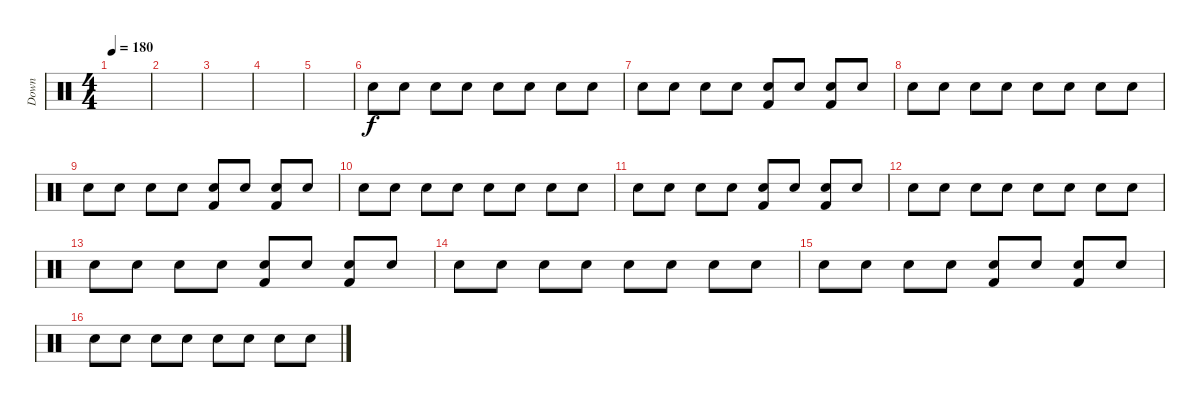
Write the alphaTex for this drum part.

\track ("Down" "Down") {instrument percussion}
\staff {score}
\articulation defaults
\ts (4 4)
\tempo 180
\clef neutral
\ks c
|
|
|
|
|
"Electric Snare (hit)".8 "Electric Snare (hit)".8 "Electric Snare (hit)".8 "Electric Snare (hit)".8 "Electric Snare (hit)".8 "Electric Snare (hit)".8 "Electric Snare (hit)".8 "Electric Snare (hit)".8 |
"Electric Snare (hit)".8 "Electric Snare (hit)".8 "Electric Snare (hit)".8 "Electric Snare (hit)".8 ("Electric Snare (hit)" "Kick (hit) 2").8 "Electric Snare (hit)".8 ("Electric Snare (hit)" "Kick (hit) 2").8 "Electric Snare (hit)".8 |
"Electric Snare (hit)".8 "Electric Snare (hit)".8 "Electric Snare (hit)".8 "Electric Snare (hit)".8 "Electric Snare (hit)".8 "Electric Snare (hit)".8 "Electric Snare (hit)".8 "Electric Snare (hit)".8 |
"Electric Snare (hit)".8 "Electric Snare (hit)".8 "Electric Snare (hit)".8 "Electric Snare (hit)".8 ("Electric Snare (hit)" "Kick (hit) 2").8 "Electric Snare (hit)".8 ("Electric Snare (hit)" "Kick (hit) 2").8 "Electric Snare (hit)".8 |
"Electric Snare (hit)".8 "Electric Snare (hit)".8 "Electric Snare (hit)".8 "Electric Snare (hit)".8 "Electric Snare (hit)".8 "Electric Snare (hit)".8 "Electric Snare (hit)".8 "Electric Snare (hit)".8 |
"Electric Snare (hit)".8 "Electric Snare (hit)".8 "Electric Snare (hit)".8 "Electric Snare (hit)".8 ("Electric Snare (hit)" "Kick (hit) 2").8 "Electric Snare (hit)".8 ("Electric Snare (hit)" "Kick (hit) 2").8 "Electric Snare (hit)".8 |
"Electric Snare (hit)".8 "Electric Snare (hit)".8 "Electric Snare (hit)".8 "Electric Snare (hit)".8 "Electric Snare (hit)".8 "Electric Snare (hit)".8 "Electric Snare (hit)".8 "Electric Snare (hit)".8 |
"Electric Snare (hit)".8 "Electric Snare (hit)".8 "Electric Snare (hit)".8 "Electric Snare (hit)".8 ("Electric Snare (hit)" "Kick (hit) 2").8 "Electric Snare (hit)".8 ("Electric Snare (hit)" "Kick (hit) 2").8 "Electric Snare (hit)".8 |
"Electric Snare (hit)".8 "Electric Snare (hit)".8 "Electric Snare (hit)".8 "Electric Snare (hit)".8 "Electric Snare (hit)".8 "Electric Snare (hit)".8 "Electric Snare (hit)".8 "Electric Snare (hit)".8 |
"Electric Snare (hit)".8 "Electric Snare (hit)".8 "Electric Snare (hit)".8 "Electric Snare (hit)".8 ("Electric Snare (hit)" "Kick (hit) 2").8 "Electric Snare (hit)".8 ("Electric Snare (hit)" "Kick (hit) 2").8 "Electric Snare (hit)".8 |
"Electric Snare (hit)".8 "Electric Snare (hit)".8 "Electric Snare (hit)".8 "Electric Snare (hit)".8 "Electric Snare (hit)".8 "Electric Snare (hit)".8 "Electric Snare (hit)".8 "Electric Snare (hit)".8
